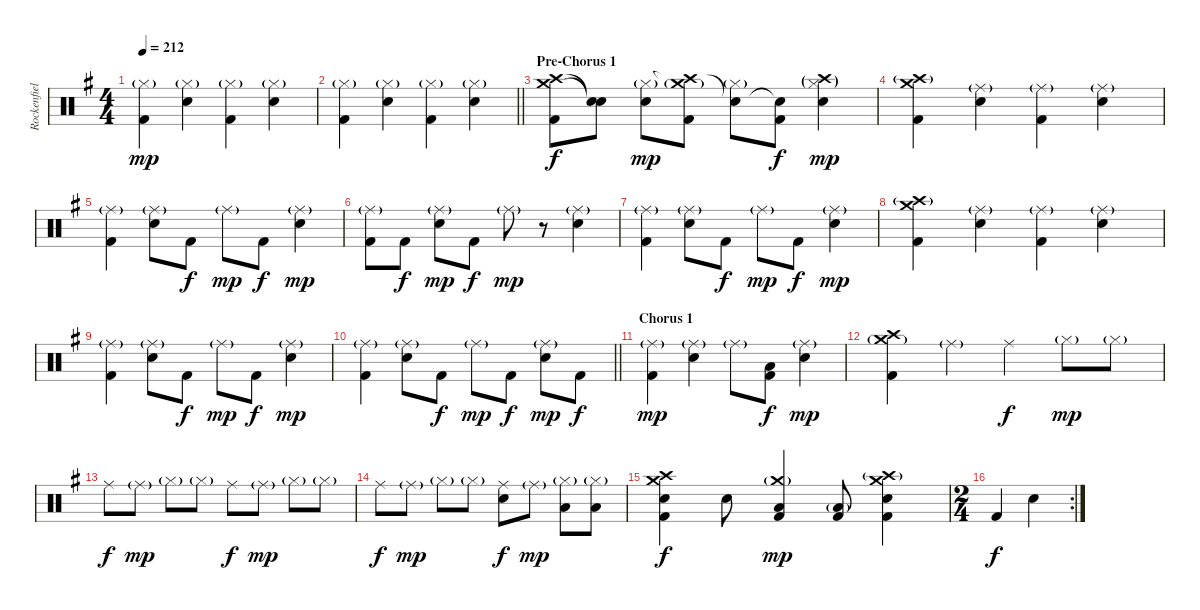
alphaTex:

\track ("Rockenfield" "Rockenfiel") {instrument percussion}
\staff {score}
\articulation defaults
\ts (4 4)
\tempo 212
\clef neutral
\ks g
("Hi-Hat (closed)"{g} "Kick (hit) 2").4{dy mp} ("Hi-Hat (closed)"{g} "Electric Snare (hit)").4 ("Hi-Hat (closed)"{g} "Kick (hit) 2").4 ("Hi-Hat (closed)"{g} "Electric Snare (hit)").4 |
\barLineRight lightlight
("Hi-Hat (closed)"{g} "Kick (hit) 2").4 ("Hi-Hat (closed)"{g} "Electric Snare (hit)").4 ("Hi-Hat (closed)"{g} "Kick (hit) 2").4 ("Hi-Hat (closed)"{g} "Electric Snare (hit)").4 |
\section ("" "Pre-Chorus 1")
("Crash high (hit)" "Crash medium (hit)" "Kick (hit) 2").8{dy f} ("Snare (hit)"{t} "Snare (hit)"{t}).8 ("Hi-Hat (closed)"{g} "Electric Snare (hit)").8{dy mp} ("Crash high (hit)"{t} "Crash medium (hit)"{g} "Kick (hit) 2").8 ("Snare (hit)"{t} "Hi-Hat (closed)"{g}).8 ("Snare (hit)"{t} "Kick (hit) 2").8{dy f} ("Crash high (hit)"{g} "Hi-Hat (closed)"{g} "Electric Snare (hit)").4{dy mp} |
("Crash high (hit)"{g} "Crash medium (hit)" "Kick (hit) 2").4 ("Ride (middle)"{g} "Electric Snare (hit)").4 ("Ride (middle)"{g} "Kick (hit) 2").4 ("Ride (middle)"{g} "Electric Snare (hit)").4 |
("Ride (middle)"{g} "Kick (hit) 2").4 ("Ride (middle)"{g} "Electric Snare (hit)").8 "Kick (hit) 2".8{dy f} "Ride (middle)"{g}.8{dy mp} "Kick (hit) 2".8{dy f} ("Ride (middle)"{g} "Electric Snare (hit)").4{dy mp} |
("Ride (middle)"{g} "Kick (hit) 2").8 "Kick (hit) 2".8{dy f} ("Ride (middle)"{g} "Electric Snare (hit)").8{dy mp} "Kick (hit) 2".8{dy f} "Ride (middle)"{g}.8{dy mp} r.8 ("Ride (middle)"{g} "Electric Snare (hit)").4 |
("Ride (middle)"{g} "Kick (hit) 2").4 ("Ride (middle)"{g} "Electric Snare (hit)").8 "Kick (hit) 2".8{dy f} "Ride (middle)"{g}.8{dy mp} "Kick (hit) 2".8{dy f} ("Ride (middle)"{g} "Electric Snare (hit)").4{dy mp} |
("Crash high (hit)"{g} "Crash medium (hit)" "Kick (hit) 2").4 ("Ride (middle)"{g} "Electric Snare (hit)").4 ("Ride (middle)"{g} "Kick (hit) 2").4 ("Ride (middle)"{g} "Electric Snare (hit)").4 |
("Ride (middle)"{g} "Kick (hit) 2").4 ("Ride (middle)"{g} "Electric Snare (hit)").8 "Kick (hit) 2".8{dy f} "Ride (middle)"{g}.8{dy mp} "Kick (hit) 2".8{dy f} ("Ride (middle)"{g} "Electric Snare (hit)").4{dy mp} |
\barLineRight lightlight
("Ride (middle)"{g} "Kick (hit) 2").4 ("Ride (middle)"{g} "Electric Snare (hit)").8 "Kick (hit) 2".8{dy f} "Ride (middle)"{g}.8{dy mp} "Kick (hit) 2".8{dy f} ("Ride (middle)"{g} "Electric Snare (hit)").8{dy mp} "Kick (hit) 2".8{dy f} |
\section ("" "Chorus 1")
("Ride (middle)"{g} "Kick (hit) 2").4{dy mp} ("Ride (middle)"{g} "Electric Snare (hit)").4 "Ride (middle)"{g}.8 ("Low Floor Tom (hit)" "Kick (hit) 2").8{dy f} ("Ride (middle)"{g} "Electric Snare (hit)").4{dy mp} |
("Crash high (hit)" "Crash medium (hit)"{g} "Kick (hit) 2").4 "Ride (middle)"{g}.4 "Ride (middle)".4{dy f} "Hi-Hat (closed)"{g}.8{dy mp} "Hi-Hat (closed)"{g}.8 |
"Ride (middle)".8{dy f} "Ride (middle)"{g}.8{dy mp} "Hi-Hat (closed)"{g}.8 "Hi-Hat (closed)"{g}.8 "Ride (middle)".8{dy f} "Ride (middle)"{g}.8{dy mp} "Hi-Hat (closed)"{g}.8 "Hi-Hat (closed)"{g}.8 |
"Ride (middle)".8{dy f} "Ride (middle)"{g}.8{dy mp} "Hi-Hat (closed)"{g}.8 "Hi-Hat (closed)"{g}.8 ("Ride (middle)" "Electric Snare (hit)").8{dy f} "Ride (middle)"{g}.8{dy mp} ("Hi-Hat (closed)"{g} "Low Floor Tom (hit)").8 ("Hi-Hat (closed)"{g} "Low Floor Tom (hit)").8 |
("Crash high (hit)" "Crash medium (hit)" "Electric Snare (hit)" "Kick (hit) 2").4{dy f} "Electric Snare (hit)".8 ("Crash medium (hit)"{g} "Low Floor Tom (hit)" "Kick (hit) 2").4{dy mp} ("Low Floor Tom (hit)"{g} "Kick (hit) 2").8 ("Crash high (hit)"{g} "Crash medium (hit)" "Electric Snare (hit)" "Kick (hit) 2").4 |
\rc 2
\ts (2 4)
"Kick (hit) 2".4{dy f} "Electric Snare (hit)".4
